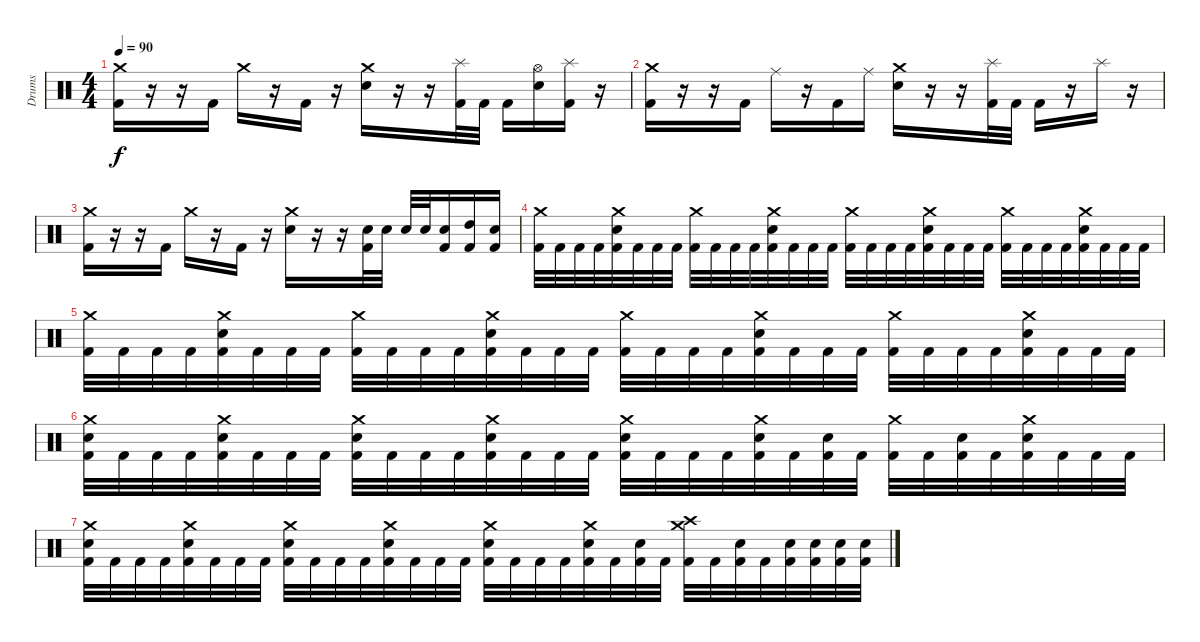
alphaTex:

\track ("Drums" "Drums") {instrument percussion}
\staff {score}
\articulation defaults
\ts (4 4)
\tempo 90
\clef neutral
\ks c
("Crash medium (hit)" "Kick (hit) 2").16{dy f} r.16 r.16 "Kick (hit) 2".16 "Crash medium (hit)".16 r.16 "Kick (hit) 2".16 r.16 ("Crash medium (hit)" "Electric Snare (hit)").16 r.16 r.16 ("Splash (hit)" "Kick (hit) 2").32 "Kick (hit) 2".32 "Kick (hit) 2".16 ("Hi-Hat (open)" "Electric Snare (hit)").16 ("Splash (hit)" "Kick (hit) 2").16 r.16 |
("Crash medium (hit)" "Kick (hit) 2").16 r.16 r.16 "Kick (hit) 2".16 "Ride (middle)".16 r.16 "Kick (hit) 2".16 "Ride (middle)".16 ("Crash medium (hit)" "Electric Snare (hit)").16 r.16 r.16 ("Splash (hit)" "Kick (hit) 2").32 "Kick (hit) 2".32 "Kick (hit) 2".16 r.16 "Splash (hit)".16 r.16 |
("Crash medium (hit)" "Kick (hit) 2").16 r.16 r.16 "Kick (hit) 2".16 "Crash medium (hit)".16 r.16 "Kick (hit) 2".16 r.16 ("Crash medium (hit)" "Electric Snare (hit)").16 r.16 r.16 ("Electric Snare (hit)" "Kick (hit) 2").32 "Electric Snare (hit)".32 "Electric Snare (hit)".32 "Electric Snare (hit)".32 ("Electric Snare (hit)" "Kick (hit) 2").16 ("High Tom (hit)" "Kick (hit) 2").16 ("Electric Snare (hit)" "Kick (hit) 2").16 |
("Crash medium (hit)" "Kick (hit) 2").32 "Kick (hit) 2".32 "Kick (hit) 2".32 "Kick (hit) 2".32 ("Crash medium (hit)" "Electric Snare (hit)" "Kick (hit) 2").32 "Kick (hit) 2".32 "Kick (hit) 2".32 "Kick (hit) 2".32 ("Crash medium (hit)" "Kick (hit) 2").32 "Kick (hit) 2".32 "Kick (hit) 2".32 "Kick (hit) 2".32 ("Crash medium (hit)" "Electric Snare (hit)" "Kick (hit) 2").32 "Kick (hit) 2".32 "Kick (hit) 2".32 "Kick (hit) 2".32 ("Crash medium (hit)" "Kick (hit) 2").32 "Kick (hit) 2".32 "Kick (hit) 2".32 "Kick (hit) 2".32 ("Crash medium (hit)" "Electric Snare (hit)" "Kick (hit) 2").32 "Kick (hit) 2".32 "Kick (hit) 2".32 "Kick (hit) 2".32 ("Crash medium (hit)" "Kick (hit) 2").32 "Kick (hit) 2".32 "Kick (hit) 2".32 "Kick (hit) 2".32 ("Crash medium (hit)" "Electric Snare (hit)" "Kick (hit) 2").32 "Kick (hit) 2".32 "Kick (hit) 2".32 "Kick (hit) 2".32 |
("Crash medium (hit)" "Kick (hit) 2").32 "Kick (hit) 2".32 "Kick (hit) 2".32 "Kick (hit) 2".32 ("Crash medium (hit)" "Electric Snare (hit)" "Kick (hit) 2").32 "Kick (hit) 2".32 "Kick (hit) 2".32 "Kick (hit) 2".32 ("Crash medium (hit)" "Kick (hit) 2").32 "Kick (hit) 2".32 "Kick (hit) 2".32 "Kick (hit) 2".32 ("Crash medium (hit)" "Electric Snare (hit)" "Kick (hit) 2").32 "Kick (hit) 2".32 "Kick (hit) 2".32 "Kick (hit) 2".32 ("Crash medium (hit)" "Kick (hit) 2").32 "Kick (hit) 2".32 "Kick (hit) 2".32 "Kick (hit) 2".32 ("Crash medium (hit)" "Electric Snare (hit)" "Kick (hit) 2").32 "Kick (hit) 2".32 "Kick (hit) 2".32 "Kick (hit) 2".32 ("Crash medium (hit)" "Kick (hit) 2").32 "Kick (hit) 2".32 "Kick (hit) 2".32 "Kick (hit) 2".32 ("Crash medium (hit)" "Electric Snare (hit)" "Kick (hit) 2").32 "Kick (hit) 2".32 "Kick (hit) 2".32 "Kick (hit) 2".32 |
("Crash medium (hit)" "Electric Snare (hit)" "Kick (hit) 2").32 "Kick (hit) 2".32 "Kick (hit) 2".32 "Kick (hit) 2".32 ("Crash medium (hit)" "Electric Snare (hit)" "Kick (hit) 2").32 "Kick (hit) 2".32 "Kick (hit) 2".32 "Kick (hit) 2".32 ("Crash medium (hit)" "Electric Snare (hit)" "Kick (hit) 2").32 "Kick (hit) 2".32 "Kick (hit) 2".32 "Kick (hit) 2".32 ("Crash medium (hit)" "Electric Snare (hit)" "Kick (hit) 2").32 "Kick (hit) 2".32 "Kick (hit) 2".32 "Kick (hit) 2".32 ("Crash medium (hit)" "Electric Snare (hit)" "Kick (hit) 2").32 "Kick (hit) 2".32 "Kick (hit) 2".32 "Kick (hit) 2".32 ("Crash medium (hit)" "Electric Snare (hit)" "Kick (hit) 2").32 "Kick (hit) 2".32 ("Electric Snare (hit)" "Kick (hit) 2").32 "Kick (hit) 2".32 ("Crash medium (hit)" "Kick (hit) 2").32 "Kick (hit) 2".32 ("Electric Snare (hit)" "Kick (hit) 2").32 "Kick (hit) 2".32 ("Crash medium (hit)" "Electric Snare (hit)" "Kick (hit) 2").32 "Kick (hit) 2".32 "Kick (hit) 2".32 "Kick (hit) 2".32 |
("Crash medium (hit)" "Electric Snare (hit)" "Kick (hit) 2").32 "Kick (hit) 2".32 "Kick (hit) 2".32 "Kick (hit) 2".32 ("Crash medium (hit)" "Electric Snare (hit)" "Kick (hit) 2").32 "Kick (hit) 2".32 "Kick (hit) 2".32 "Kick (hit) 2".32 ("Crash medium (hit)" "Electric Snare (hit)" "Kick (hit) 2").32 "Kick (hit) 2".32 "Kick (hit) 2".32 "Kick (hit) 2".32 ("Crash medium (hit)" "Electric Snare (hit)" "Kick (hit) 2").32 "Kick (hit) 2".32 "Kick (hit) 2".32 "Kick (hit) 2".32 ("Crash medium (hit)" "Electric Snare (hit)" "Kick (hit) 2").32 "Kick (hit) 2".32 "Kick (hit) 2".32 "Kick (hit) 2".32 ("Crash medium (hit)" "Electric Snare (hit)" "Kick (hit) 2").32 "Kick (hit) 2".32 ("Electric Snare (hit)" "Kick (hit) 2").32 "Kick (hit) 2".32 ("Crash medium (hit)" "Crash high (hit)" "Kick (hit) 2").32 "Kick (hit) 2".32 ("Electric Snare (hit)" "Kick (hit) 2").32 "Kick (hit) 2".32 ("Electric Snare (hit)" "Kick (hit) 2").32 ("Electric Snare (hit)" "Kick (hit) 2").32 ("Electric Snare (hit)" "Kick (hit) 2").32 ("Electric Snare (hit)" "Kick (hit) 2").32
